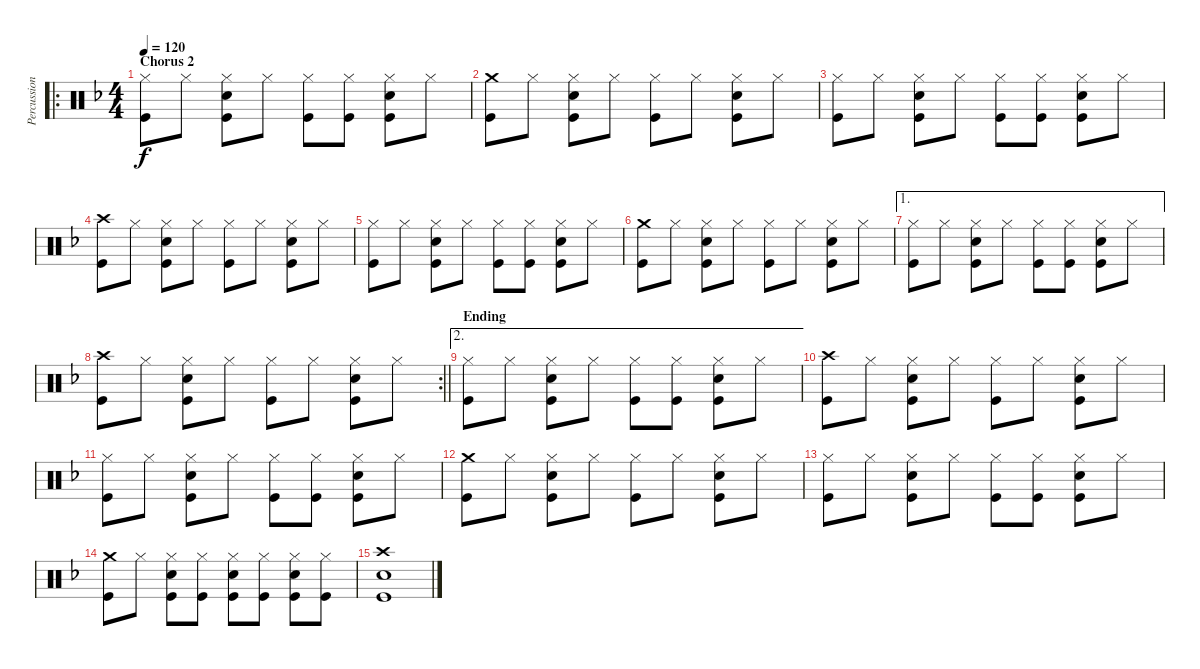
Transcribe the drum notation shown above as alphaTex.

\track ("Percussion" "Percussion") {instrument percussion}
\staff {score}
\articulation defaults
\ro
\ts (4 4)
\section ("" "Chorus 2")
\tempo 120
\clef neutral
\ks f
("Hi-Hat (closed)" "Kick (hit)").8{dy f} "Hi-Hat (closed)".8 ("Hi-Hat (closed)" "Kick (hit)" "Electric Snare (hit)").8 "Hi-Hat (closed)".8 ("Hi-Hat (closed)" "Kick (hit)").8 ("Hi-Hat (closed)" "Kick (hit)").8 ("Hi-Hat (closed)" "Kick (hit)" "Electric Snare (hit)").8 "Hi-Hat (closed)".8 |
("Crash medium (hit)" "Kick (hit)").8 "Hi-Hat (closed)".8 ("Hi-Hat (closed)" "Kick (hit)" "Electric Snare (hit)").8 "Hi-Hat (closed)".8 ("Hi-Hat (closed)" "Kick (hit)").8 "Hi-Hat (closed)".8 ("Hi-Hat (closed)" "Kick (hit)" "Electric Snare (hit)").8 "Hi-Hat (closed)".8 |
("Hi-Hat (closed)" "Kick (hit)").8 "Hi-Hat (closed)".8 ("Hi-Hat (closed)" "Kick (hit)" "Electric Snare (hit)").8 "Hi-Hat (closed)".8 ("Hi-Hat (closed)" "Kick (hit)").8 ("Hi-Hat (closed)" "Kick (hit)").8 ("Hi-Hat (closed)" "Kick (hit)" "Electric Snare (hit)").8 "Hi-Hat (closed)".8 |
("Crash high (hit)" "Kick (hit)").8 "Hi-Hat (closed)".8 ("Hi-Hat (closed)" "Kick (hit)" "Electric Snare (hit)").8 "Hi-Hat (closed)".8 ("Hi-Hat (closed)" "Kick (hit)").8 "Hi-Hat (closed)".8 ("Hi-Hat (closed)" "Kick (hit)" "Electric Snare (hit)").8 "Hi-Hat (closed)".8 |
("Hi-Hat (closed)" "Kick (hit)").8 "Hi-Hat (closed)".8 ("Hi-Hat (closed)" "Kick (hit)" "Electric Snare (hit)").8 "Hi-Hat (closed)".8 ("Hi-Hat (closed)" "Kick (hit)").8 ("Hi-Hat (closed)" "Kick (hit)").8 ("Hi-Hat (closed)" "Kick (hit)" "Electric Snare (hit)").8 "Hi-Hat (closed)".8 |
("Crash medium (hit)" "Kick (hit)").8 "Hi-Hat (closed)".8 ("Hi-Hat (closed)" "Kick (hit)" "Electric Snare (hit)").8 "Hi-Hat (closed)".8 ("Hi-Hat (closed)" "Kick (hit)").8 "Hi-Hat (closed)".8 ("Hi-Hat (closed)" "Kick (hit)" "Electric Snare (hit)").8 "Hi-Hat (closed)".8 |
\ae 1
("Hi-Hat (closed)" "Kick (hit)").8 "Hi-Hat (closed)".8 ("Hi-Hat (closed)" "Kick (hit)" "Electric Snare (hit)").8 "Hi-Hat (closed)".8 ("Hi-Hat (closed)" "Kick (hit)").8 ("Hi-Hat (closed)" "Kick (hit)").8 ("Hi-Hat (closed)" "Kick (hit)" "Electric Snare (hit)").8 "Hi-Hat (closed)".8 |
\rc 2
\barLineRight lightlight
("Crash high (hit)" "Kick (hit)").8 "Hi-Hat (closed)".8 ("Hi-Hat (closed)" "Kick (hit)" "Electric Snare (hit)").8 "Hi-Hat (closed)".8 ("Hi-Hat (closed)" "Kick (hit)").8 "Hi-Hat (closed)".8 ("Hi-Hat (closed)" "Kick (hit)" "Electric Snare (hit)").8 "Hi-Hat (closed)".8 |
\ae 2
\section ("" "Ending")
("Hi-Hat (closed)" "Kick (hit)").8 "Hi-Hat (closed)".8 ("Hi-Hat (closed)" "Kick (hit)" "Electric Snare (hit)").8 "Hi-Hat (closed)".8 ("Hi-Hat (closed)" "Kick (hit)").8 ("Hi-Hat (closed)" "Kick (hit)").8 ("Hi-Hat (closed)" "Kick (hit)" "Electric Snare (hit)").8 "Hi-Hat (closed)".8 |
("Crash high (hit)" "Kick (hit)").8 "Hi-Hat (closed)".8 ("Hi-Hat (closed)" "Kick (hit)" "Electric Snare (hit)").8 "Hi-Hat (closed)".8 ("Hi-Hat (closed)" "Kick (hit)").8 "Hi-Hat (closed)".8 ("Hi-Hat (closed)" "Kick (hit)" "Electric Snare (hit)").8 "Hi-Hat (closed)".8 |
("Hi-Hat (closed)" "Kick (hit)").8 "Hi-Hat (closed)".8 ("Hi-Hat (closed)" "Kick (hit)" "Electric Snare (hit)").8 "Hi-Hat (closed)".8 ("Hi-Hat (closed)" "Kick (hit)").8 ("Hi-Hat (closed)" "Kick (hit)").8 ("Hi-Hat (closed)" "Kick (hit)" "Electric Snare (hit)").8 "Hi-Hat (closed)".8 |
("Crash medium (hit)" "Kick (hit)").8 "Hi-Hat (closed)".8 ("Hi-Hat (closed)" "Kick (hit)" "Electric Snare (hit)").8 "Hi-Hat (closed)".8 ("Hi-Hat (closed)" "Kick (hit)").8 "Hi-Hat (closed)".8 ("Hi-Hat (closed)" "Kick (hit)" "Electric Snare (hit)").8 "Hi-Hat (closed)".8 |
("Hi-Hat (closed)" "Kick (hit)").8 "Hi-Hat (closed)".8 ("Hi-Hat (closed)" "Kick (hit)" "Electric Snare (hit)").8 "Hi-Hat (closed)".8 ("Hi-Hat (closed)" "Kick (hit)").8 ("Hi-Hat (closed)" "Kick (hit)").8 ("Hi-Hat (closed)" "Kick (hit)" "Electric Snare (hit)").8 "Hi-Hat (closed)".8 |
("Crash medium (hit)" "Kick (hit)").8 "Hi-Hat (closed)".8 ("Hi-Hat (closed)" "Kick (hit)" "Electric Snare (hit)").8 ("Hi-Hat (closed)" "Kick (hit)").8 ("Hi-Hat (closed)" "Kick (hit)" "Electric Snare (hit)").8 ("Hi-Hat (closed)" "Kick (hit)").8 ("Hi-Hat (closed)" "Kick (hit)" "Electric Snare (hit)").8 ("Hi-Hat (closed)" "Kick (hit)").8 |
("Crash high (hit)" "Kick (hit)" "Electric Snare (hit)").1
